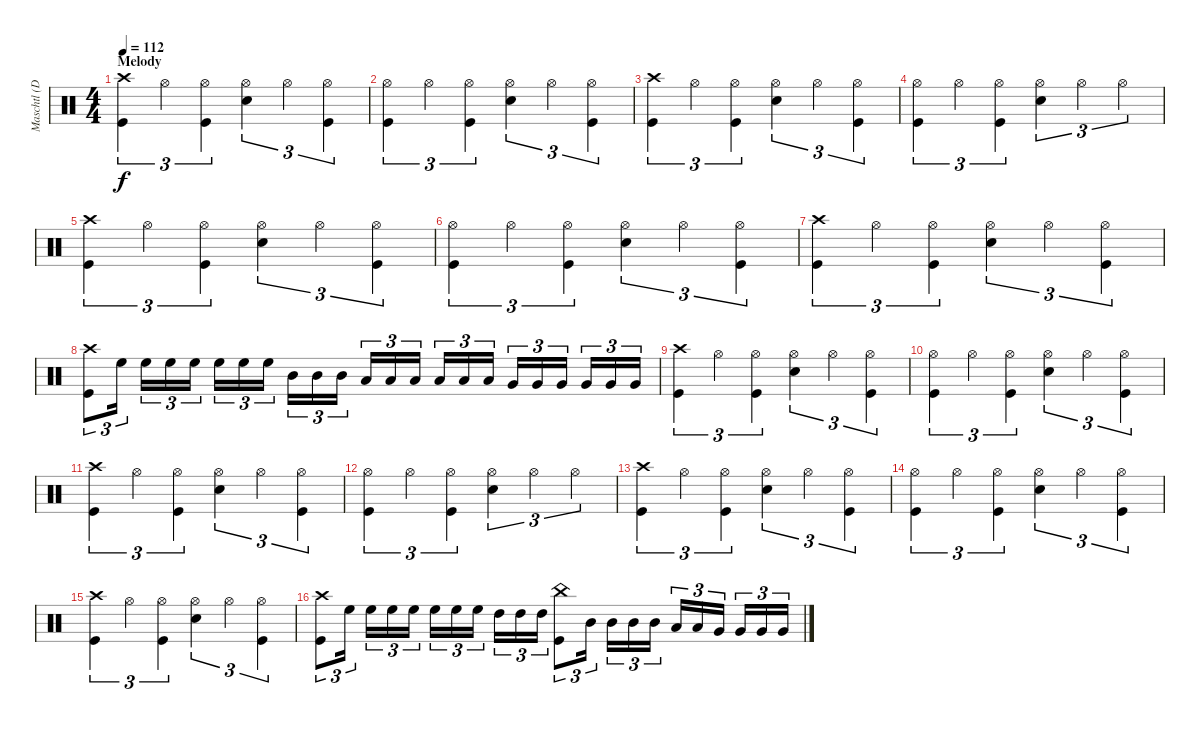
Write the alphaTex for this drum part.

\track ("Maschtl (Drums)" "Maschtl (D") {instrument percussion}
\staff {score}
\articulation defaults
\ts (4 4)
\section ("" "Melody")
\tempo 112
\clef neutral
\ks c
("Crash high (hit)" "Kick (hit)").4{tu (3 2) dy f} "Hi-Hat (open)".4{tu (3 2)} ("Hi-Hat (open)" "Kick (hit)").4{tu (3 2)} ("Hi-Hat (open)" "Electric Snare (hit)").4{tu (3 2)} "Hi-Hat (open)".4{tu (3 2)} ("Hi-Hat (open)" "Kick (hit)").4{tu (3 2)} |
("Hi-Hat (open)" "Kick (hit)").4{tu (3 2)} "Hi-Hat (open)".4{tu (3 2)} ("Hi-Hat (open)" "Kick (hit)").4{tu (3 2)} ("Hi-Hat (open)" "Electric Snare (hit)").4{tu (3 2)} "Hi-Hat (open)".4{tu (3 2)} ("Hi-Hat (open)" "Kick (hit)").4{tu (3 2)} |
("Crash high (hit)" "Kick (hit)").4{tu (3 2)} "Hi-Hat (open)".4{tu (3 2)} ("Hi-Hat (open)" "Kick (hit)").4{tu (3 2)} ("Hi-Hat (open)" "Electric Snare (hit)").4{tu (3 2)} "Hi-Hat (open)".4{tu (3 2)} ("Hi-Hat (open)" "Kick (hit)").4{tu (3 2)} |
("Hi-Hat (open)" "Kick (hit)").4{tu (3 2)} "Hi-Hat (open)".4{tu (3 2)} ("Hi-Hat (open)" "Kick (hit)").4{tu (3 2)} ("Hi-Hat (open)" "Electric Snare (hit)").4{tu (3 2)} "Hi-Hat (open)".4{tu (3 2)} "Hi-Hat (open)".4{tu (3 2)} |
("Crash high (hit)" "Kick (hit)").4{tu (3 2)} "Hi-Hat (open)".4{tu (3 2)} ("Hi-Hat (open)" "Kick (hit)").4{tu (3 2)} ("Hi-Hat (open)" "Electric Snare (hit)").4{tu (3 2)} "Hi-Hat (open)".4{tu (3 2)} ("Hi-Hat (open)" "Kick (hit)").4{tu (3 2)} |
("Hi-Hat (open)" "Kick (hit)").4{tu (3 2)} "Hi-Hat (open)".4{tu (3 2)} ("Hi-Hat (open)" "Kick (hit)").4{tu (3 2)} ("Hi-Hat (open)" "Electric Snare (hit)").4{tu (3 2)} "Hi-Hat (open)".4{tu (3 2)} ("Hi-Hat (open)" "Kick (hit)").4{tu (3 2)} |
("Crash high (hit)" "Kick (hit)").4{tu (3 2)} "Hi-Hat (open)".4{tu (3 2)} ("Hi-Hat (open)" "Kick (hit)").4{tu (3 2)} ("Hi-Hat (open)" "Electric Snare (hit)").4{tu (3 2)} "Hi-Hat (open)".4{tu (3 2)} ("Hi-Hat (open)" "Kick (hit)").4{tu (3 2)} |
("Crash high (hit)" "Kick (hit)").8{tu (3 2)} "High Floor Tom (hit)".16{tu (3 2)} "High Floor Tom (hit)".16{tu (3 2)} "High Floor Tom (hit)".16{tu (3 2)} "High Floor Tom (hit)".16{tu (3 2)} "High Floor Tom (hit)".16{tu (3 2)} "High Floor Tom (hit)".16{tu (3 2)} "High Floor Tom (hit)".16{tu (3 2)} "Mid Tom (hit)".16{tu (3 2)} "Mid Tom (hit)".16{tu (3 2)} "Mid Tom (hit)".16{tu (3 2)} "Low Tom (hit)".16{tu (3 2)} "Low Tom (hit)".16{tu (3 2)} "Low Tom (hit)".16{tu (3 2)} "Low Tom (hit)".16{tu (3 2)} "Low Tom (hit)".16{tu (3 2)} "Low Tom (hit)".16{tu (3 2)} "Very Low Tom (hit)".16{tu (3 2)} "Very Low Tom (hit)".16{tu (3 2)} "Very Low Tom (hit)".16{tu (3 2)} "Very Low Tom (hit)".16{tu (3 2)} "Very Low Tom (hit)".16{tu (3 2)} "Very Low Tom (hit)".16{tu (3 2)} |
("Crash high (hit)" "Kick (hit)").4{tu (3 2)} "Hi-Hat (open)".4{tu (3 2)} ("Hi-Hat (open)" "Kick (hit)").4{tu (3 2)} ("Hi-Hat (open)" "Electric Snare (hit)").4{tu (3 2)} "Hi-Hat (open)".4{tu (3 2)} ("Hi-Hat (open)" "Kick (hit)").4{tu (3 2)} |
("Hi-Hat (open)" "Kick (hit)").4{tu (3 2)} "Hi-Hat (open)".4{tu (3 2)} ("Hi-Hat (open)" "Kick (hit)").4{tu (3 2)} ("Hi-Hat (open)" "Electric Snare (hit)").4{tu (3 2)} "Hi-Hat (open)".4{tu (3 2)} ("Hi-Hat (open)" "Kick (hit)").4{tu (3 2)} |
("Crash high (hit)" "Kick (hit)").4{tu (3 2)} "Hi-Hat (open)".4{tu (3 2)} ("Hi-Hat (open)" "Kick (hit)").4{tu (3 2)} ("Hi-Hat (open)" "Electric Snare (hit)").4{tu (3 2)} "Hi-Hat (open)".4{tu (3 2)} ("Hi-Hat (open)" "Kick (hit)").4{tu (3 2)} |
("Hi-Hat (open)" "Kick (hit)").4{tu (3 2)} "Hi-Hat (open)".4{tu (3 2)} ("Hi-Hat (open)" "Kick (hit)").4{tu (3 2)} ("Hi-Hat (open)" "Electric Snare (hit)").4{tu (3 2)} "Hi-Hat (open)".4{tu (3 2)} "Hi-Hat (open)".4{tu (3 2)} |
("Crash high (hit)" "Kick (hit)").4{tu (3 2)} "Hi-Hat (open)".4{tu (3 2)} ("Hi-Hat (open)" "Kick (hit)").4{tu (3 2)} ("Hi-Hat (open)" "Electric Snare (hit)").4{tu (3 2)} "Hi-Hat (open)".4{tu (3 2)} ("Hi-Hat (open)" "Kick (hit)").4{tu (3 2)} |
("Hi-Hat (open)" "Kick (hit)").4{tu (3 2)} "Hi-Hat (open)".4{tu (3 2)} ("Hi-Hat (open)" "Kick (hit)").4{tu (3 2)} ("Hi-Hat (open)" "Electric Snare (hit)").4{tu (3 2)} "Hi-Hat (open)".4{tu (3 2)} ("Hi-Hat (open)" "Kick (hit)").4{tu (3 2)} |
("Crash high (hit)" "Kick (hit)").4{tu (3 2)} "Hi-Hat (open)".4{tu (3 2)} ("Hi-Hat (open)" "Kick (hit)").4{tu (3 2)} ("Hi-Hat (open)" "Electric Snare (hit)").4{tu (3 2)} "Hi-Hat (open)".4{tu (3 2)} ("Hi-Hat (open)" "Kick (hit)").4{tu (3 2)} |
("Crash high (hit)" "Kick (hit)").8{tu (3 2)} "High Floor Tom (hit)".16{tu (3 2)} "High Floor Tom (hit)".16{tu (3 2)} "High Floor Tom (hit)".16{tu (3 2)} "High Floor Tom (hit)".16{tu (3 2)} "High Floor Tom (hit)".16{tu (3 2)} "High Floor Tom (hit)".16{tu (3 2)} "High Floor Tom (hit)".16{tu (3 2)} "High Tom (hit)".16{tu (3 2)} "High Tom (hit)".16{tu (3 2)} "High Tom (hit)".16{tu (3 2)} ("China (hit)" "Kick (hit)").8{tu (3 2)} "Mid Tom (hit)".16{tu (3 2)} "Mid Tom (hit)".16{tu (3 2)} "Mid Tom (hit)".16{tu (3 2)} "Mid Tom (hit)".16{tu (3 2)} "Low Tom (hit)".16{tu (3 2)} "Low Tom (hit)".16{tu (3 2)} "Very Low Tom (hit)".16{tu (3 2)} "Very Low Tom (hit)".16{tu (3 2)} "Very Low Tom (hit)".16{tu (3 2)} "Very Low Tom (hit)".16{tu (3 2)}
